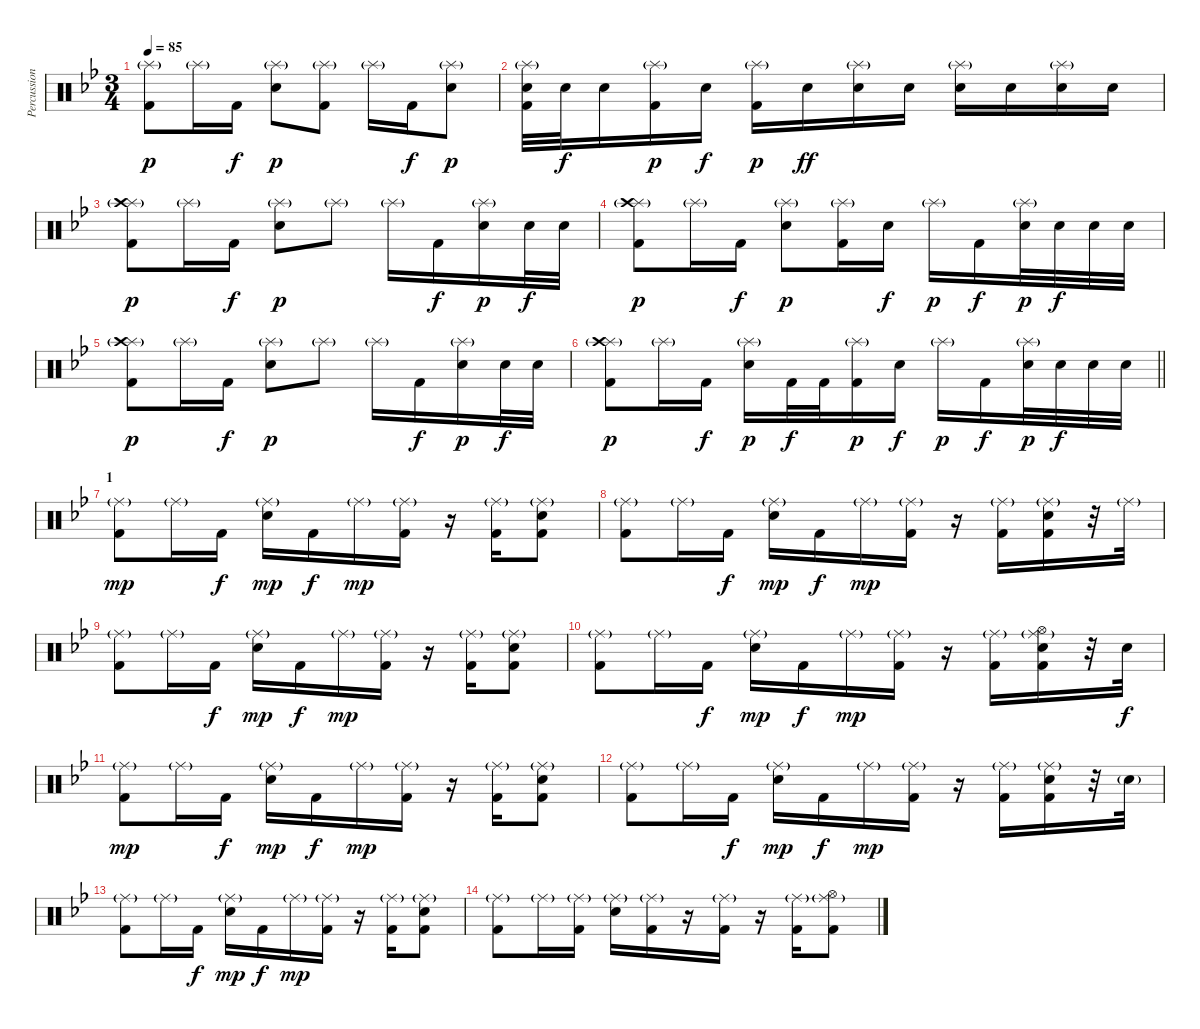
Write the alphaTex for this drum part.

\track ("Percussion" "Percussion") {instrument percussion}
\staff {score}
\articulation defaults
\ts (3 4)
\tempo 85
\clef neutral
\ks bb
("Splash (hit)"{g} "Kick (hit) 2").8{dy p} "Splash (hit)"{g}.16 "Kick (hit) 2".16{dy f} ("Splash (hit)"{g} "Snare (hit) 2").8{dy p} ("Splash (hit)"{g} "Kick (hit) 2").8 "Splash (hit)"{g}.16 "Kick (hit) 2".16{dy f} ("Splash (hit)"{g} "Snare (hit) 2").8{dy p} |
("Splash (hit)"{g} "Snare (hit) 2" "Kick (hit) 2").32 "Snare (hit) 2".32{dy f} "Snare (hit) 2".16 ("Splash (hit)"{g} "Kick (hit) 2").16{dy p} "Snare (hit) 2".16{dy f} ("Splash (hit)"{g} "Kick (hit) 2").16{dy p} "Snare (hit) 2".16{dy ff} ("Splash (hit)"{g} "Snare (hit) 2").16 "Snare (hit) 2".16 ("Splash (hit)"{g} "Snare (hit) 2").16 "Snare (hit) 2".16 ("Splash (hit)"{g} "Snare (hit) 2").16 "Snare (hit) 2".16 |
("Splash (hit)"{g} "Crash high (hit)" "Kick (hit) 2").8{dy p} "Splash (hit)"{g}.16 "Kick (hit) 2".16{dy f} ("Splash (hit)"{g} "Snare (hit) 2").8{dy p} "Splash (hit)"{g}.8 "Splash (hit)"{g}.16 "Kick (hit) 2".16{dy f} ("Splash (hit)"{g} "Snare (hit) 2").16{dy p} "Snare (hit) 2".32{dy f} "Snare (hit) 2".32 |
("Splash (hit)"{g} "Crash high (hit)" "Kick (hit) 2").8{dy p} "Splash (hit)"{g}.16 "Kick (hit) 2".16{dy f} ("Splash (hit)"{g} "Snare (hit) 2").8{dy p} ("Splash (hit)"{g} "Kick (hit) 2").16 "Snare (hit) 2".16{dy f} "Splash (hit)"{g}.16{dy p} "Kick (hit) 2".16{dy f} ("Splash (hit)"{g} "Snare (hit) 2").32{dy p} "Snare (hit) 2".32{dy f} "Snare (hit) 2".32 "Snare (hit) 2".32 |
("Splash (hit)"{g} "Crash high (hit)" "Kick (hit) 2").8{dy p} "Splash (hit)"{g}.16 "Kick (hit) 2".16{dy f} ("Splash (hit)"{g} "Snare (hit) 2").8{dy p} "Splash (hit)"{g}.8 "Splash (hit)"{g}.16 "Kick (hit) 2".16{dy f} ("Splash (hit)"{g} "Snare (hit) 2").16{dy p} "Snare (hit) 2".32{dy f} "Snare (hit) 2".32 |
\barLineRight lightlight
("Splash (hit)"{g} "Crash high (hit)" "Kick (hit) 2").8{dy p} "Splash (hit)"{g}.16 "Kick (hit) 2".16{dy f} ("Splash (hit)"{g} "Snare (hit) 2").16{dy p} "Kick (hit) 2".32{dy f} "Kick (hit) 2".32 ("Splash (hit)"{g} "Kick (hit) 2").16{dy p} "Snare (hit) 2".16{dy f} "Splash (hit)"{g}.16{dy p} "Kick (hit) 2".16{dy f} ("Splash (hit)"{g} "Snare (hit) 2").32{dy p} "Snare (hit) 2".32{dy f} "Snare (hit) 2".32 "Snare (hit) 2".32 |
\section ("" "1")
("Ride (middle)"{g} "Kick (hit) 2").8{dy mp} "Ride (middle)"{g}.16 "Kick (hit) 2".16{dy f} ("Ride (middle)"{g} "Snare (hit) 2").16{dy mp} "Kick (hit) 2".16{dy f} "Ride (middle)"{g}.16{dy mp} ("Ride (middle)"{g} "Kick (hit) 2").16 r.16 ("Ride (middle)"{g} "Kick (hit) 2").16 ("Ride (middle)"{g} "Snare (hit) 2" "Kick (hit) 2").8 |
("Ride (middle)"{g} "Kick (hit) 2").8 "Ride (middle)"{g}.16 "Kick (hit) 2".16{dy f} ("Ride (middle)"{g} "Snare (hit) 2").16{dy mp} "Kick (hit) 2".16{dy f} "Ride (middle)"{g}.16{dy mp} ("Ride (middle)"{g} "Kick (hit) 2").16 r.16 ("Ride (middle)"{g} "Kick (hit) 2").16 ("Ride (middle)"{g} "Snare (hit) 2" "Kick (hit) 2").16 r.32 "Ride (middle)"{g}.32 |
("Ride (middle)"{g} "Kick (hit) 2").8 "Ride (middle)"{g}.16 "Kick (hit) 2".16{dy f} ("Ride (middle)"{g} "Snare (hit) 2").16{dy mp} "Kick (hit) 2".16{dy f} "Ride (middle)"{g}.16{dy mp} ("Ride (middle)"{g} "Kick (hit) 2").16 r.16 ("Ride (middle)"{g} "Kick (hit) 2").16 ("Ride (middle)"{g} "Snare (hit) 2" "Kick (hit) 2").8 |
("Ride (middle)"{g} "Kick (hit) 2").8 "Ride (middle)"{g}.16 "Kick (hit) 2".16{dy f} ("Ride (middle)"{g} "Snare (hit) 2").16{dy mp} "Kick (hit) 2".16{dy f} "Ride (middle)"{g}.16{dy mp} ("Ride (middle)"{g} "Kick (hit) 2").16 r.16 ("Ride (middle)"{g} "Kick (hit) 2").16 ("Ride (middle)"{g} "Hi-Hat (open)" "Snare (hit) 2" "Kick (hit) 2").16 r.32 "Snare (hit) 2".32{dy f} |
("Ride (middle)"{g} "Kick (hit) 2").8{dy mp} "Ride (middle)"{g}.16 "Kick (hit) 2".16{dy f} ("Ride (middle)"{g} "Snare (hit) 2").16{dy mp} "Kick (hit) 2".16{dy f} "Ride (middle)"{g}.16{dy mp} ("Ride (middle)"{g} "Kick (hit) 2").16 r.16 ("Ride (middle)"{g} "Kick (hit) 2").16 ("Ride (middle)"{g} "Snare (hit) 2" "Kick (hit) 2").8 |
("Ride (middle)"{g} "Kick (hit) 2").8 "Ride (middle)"{g}.16 "Kick (hit) 2".16{dy f} ("Ride (middle)"{g} "Snare (hit) 2").16{dy mp} "Kick (hit) 2".16{dy f} "Ride (middle)"{g}.16{dy mp} ("Ride (middle)"{g} "Kick (hit) 2").16 r.16 ("Ride (middle)"{g} "Kick (hit) 2").16 ("Ride (middle)"{g} "Snare (hit) 2" "Kick (hit) 2").16 r.32 "Snare (hit) 2"{g}.32 |
("Ride (middle)"{g} "Kick (hit) 2").8 "Ride (middle)"{g}.16 "Kick (hit) 2".16{dy f} ("Ride (middle)"{g} "Snare (hit) 2").16{dy mp} "Kick (hit) 2".16{dy f} "Ride (middle)"{g}.16{dy mp} ("Ride (middle)"{g} "Kick (hit) 2").16 r.16 ("Ride (middle)"{g} "Kick (hit) 2").16 ("Ride (middle)"{g} "Snare (hit) 2" "Kick (hit) 2").8 |
("Ride (middle)"{g} "Kick (hit) 2").8 "Ride (middle)"{g}.16 ("Ride (middle)"{g} "Kick (hit) 2").16 ("Ride (middle)"{g} "Snare (hit) 2").16 ("Ride (middle)"{g} "Kick (hit) 2").16 r.16 ("Ride (middle)"{g} "Kick (hit) 2").16 r.16 ("Ride (middle)"{g} "Kick (hit) 2").16 ("Ride (middle)"{g} "Hi-Hat (open)" "Kick (hit) 2").8
